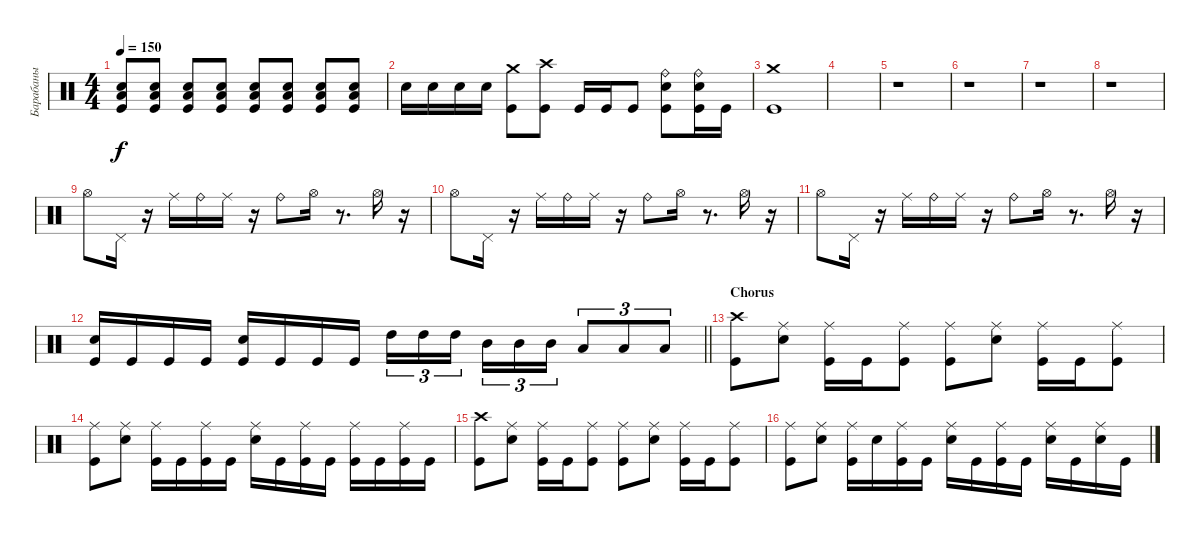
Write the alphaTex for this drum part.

\track ("Барабаны" "Барабаны") {instrument percussion}
\staff {score}
\articulation defaults
\ts (4 4)
\tempo 150
\clef neutral
\ks c
("Low Tom (hit)" "Snare (hit) 2" "Kick (hit)").8{dy f} ("Low Tom (hit)" "Snare (hit) 2" "Kick (hit)").8 ("Low Tom (hit)" "Snare (hit) 2" "Kick (hit)").8 ("Low Tom (hit)" "Snare (hit) 2" "Kick (hit)").8 ("Low Tom (hit)" "Snare (hit) 2" "Kick (hit)").8 ("Low Tom (hit)" "Snare (hit) 2" "Kick (hit)").8 ("Low Tom (hit)" "Snare (hit) 2" "Kick (hit)").8 ("Low Tom (hit)" "Snare (hit) 2" "Kick (hit)").8 |
"Snare (hit) 2".16 "Snare (hit) 2".16 "Snare (hit) 2".16 "Snare (hit) 2".16 ("Crash medium (hit)" "Kick (hit)").8 ("Crash high (hit)" "Kick (hit)").8 "Kick (hit)".16 "Kick (hit)".16 "Kick (hit)".8 ("Ride (bell)" "Snare (hit) 2" "Kick (hit)").8 ("Ride (bell)" "Snare (hit) 2" "Kick (hit)").16 "Kick (hit)".16 |
("Crash medium (hit)" "Kick (hit)").1 |
|
r.1 |
r.1 |
r.1 |
r.1 |
"Hi-Hat (open)".8 "Pedal Hi-Hat (hit)".16 r.16 "Ride (middle)".16 "Ride (bell)".16 "Ride (middle)".16 r.16 "Ride (bell)".8 "Hi-Hat (open)".16 r.8{d} "Hi-Hat (open)".16 r.16 |
"Hi-Hat (open)".8 "Pedal Hi-Hat (hit)".16 r.16 "Ride (middle)".16 "Ride (bell)".16 "Ride (middle)".16 r.16 "Ride (bell)".8 "Hi-Hat (open)".16 r.8{d} "Hi-Hat (open)".16 r.16 |
"Hi-Hat (open)".8 "Pedal Hi-Hat (hit)".16 r.16 "Ride (middle)".16 "Ride (bell)".16 "Ride (middle)".16 r.16 "Ride (bell)".8 "Hi-Hat (open)".16 r.8{d} "Hi-Hat (open)".16 r.16 |
\barLineRight lightlight
("Snare (hit) 2" "Kick (hit)").16 "Kick (hit)".16 "Kick (hit)".16 "Kick (hit)".16 ("Snare (hit) 2" "Kick (hit)").16 "Kick (hit)".16 "Kick (hit)".16 "Kick (hit)".16 "High Tom (hit)".16{tu (3 2)} "High Tom (hit)".16{tu (3 2)} "High Tom (hit)".16{tu (3 2) beam splitsecondary} "Mid Tom (hit)".16{tu (3 2)} "Mid Tom (hit)".16{tu (3 2)} "Mid Tom (hit)".16{tu (3 2)} "Low Tom (hit)".8{tu (3 2)} "Low Tom (hit)".8{tu (3 2)} "Low Tom (hit)".8{tu (3 2)} |
\section ("" "Chorus")
("Crash high (hit)" "Kick (hit)").8 ("Ride (middle)" "Snare (hit) 2").8 ("Ride (middle)" "Kick (hit)").16 "Kick (hit)".16 ("Ride (middle)" "Kick (hit)").8 ("Ride (middle)" "Kick (hit)").8 ("Ride (middle)" "Snare (hit) 2").8 ("Ride (middle)" "Kick (hit)").16 "Kick (hit)".16 ("Ride (middle)" "Kick (hit)").8 |
("Ride (middle)" "Kick (hit)").8 ("Ride (middle)" "Snare (hit) 2").8 ("Ride (middle)" "Kick (hit)").16 "Kick (hit)".16 ("Ride (middle)" "Kick (hit)").16 "Kick (hit)".16 ("Ride (middle)" "Snare (hit) 2").16 "Kick (hit)".16 ("Ride (middle)" "Kick (hit)").16 "Kick (hit)".16 ("Ride (middle)" "Kick (hit)").16 "Kick (hit)".16 ("Ride (middle)" "Kick (hit)").16 "Kick (hit)".16 |
("Crash high (hit)" "Kick (hit)").8 ("Ride (middle)" "Snare (hit) 2").8 ("Ride (middle)" "Kick (hit)").16 "Kick (hit)".16 ("Ride (middle)" "Kick (hit)").8 ("Ride (middle)" "Kick (hit)").8 ("Ride (middle)" "Snare (hit) 2").8 ("Ride (middle)" "Kick (hit)").16 "Kick (hit)".16 ("Ride (middle)" "Kick (hit)").8 |
("Ride (middle)" "Kick (hit)").8 ("Ride (middle)" "Snare (hit) 2").8 ("Ride (middle)" "Kick (hit)").16 "Snare (hit) 2".16 ("Ride (middle)" "Kick (hit)").16 "Kick (hit)".16 ("Ride (middle)" "Snare (hit) 2").16 "Kick (hit)".16 ("Ride (middle)" "Kick (hit)").16 "Kick (hit)".16 ("Ride (middle)" "Snare (hit) 2").16 "Kick (hit)".16 ("Ride (middle)" "Snare (hit) 2").16 "Kick (hit)".16
